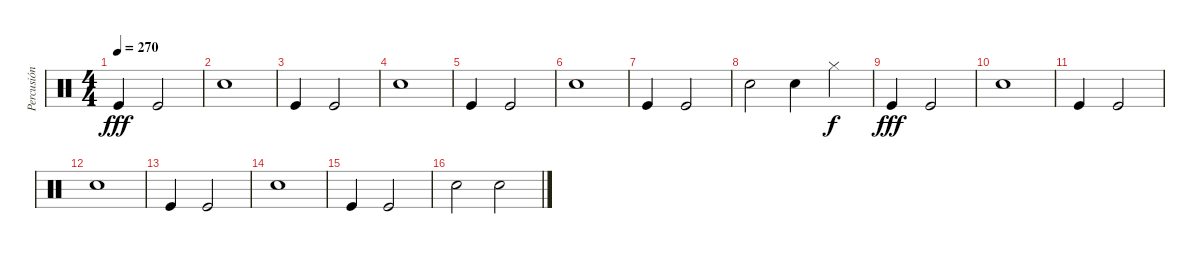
\track ("Percusión" "Percusión") {instrument percussion}
\staff {score}
\articulation defaults
\ts (4 4)
\tempo 270
\clef neutral
\ks c "Kick (hit)".4{dy fff} "Kick (hit)".2
|
"Snare (hit) 2".1 |
"Kick (hit)".4 "Kick (hit)".2 |
"Snare (hit) 2".1 |
"Kick (hit)".4 "Kick (hit)".2 |
"Snare (hit) 2".1 |
"Kick (hit)".4 "Kick (hit)".2 |
"Snare (hit) 2".2 "Snare (hit) 2".4 "Hi-Hat (closed)".4{dy f} |
"Kick (hit)".4{dy fff} "Kick (hit)".2 |
"Snare (hit) 2".1 |
"Kick (hit)".4 "Kick (hit)".2 |
"Snare (hit) 2".1 |
"Kick (hit)".4 "Kick (hit)".2 |
"Snare (hit) 2".1 |
"Kick (hit)".4 "Kick (hit)".2 |
"Snare (hit) 2".2 "Snare (hit) 2".2
